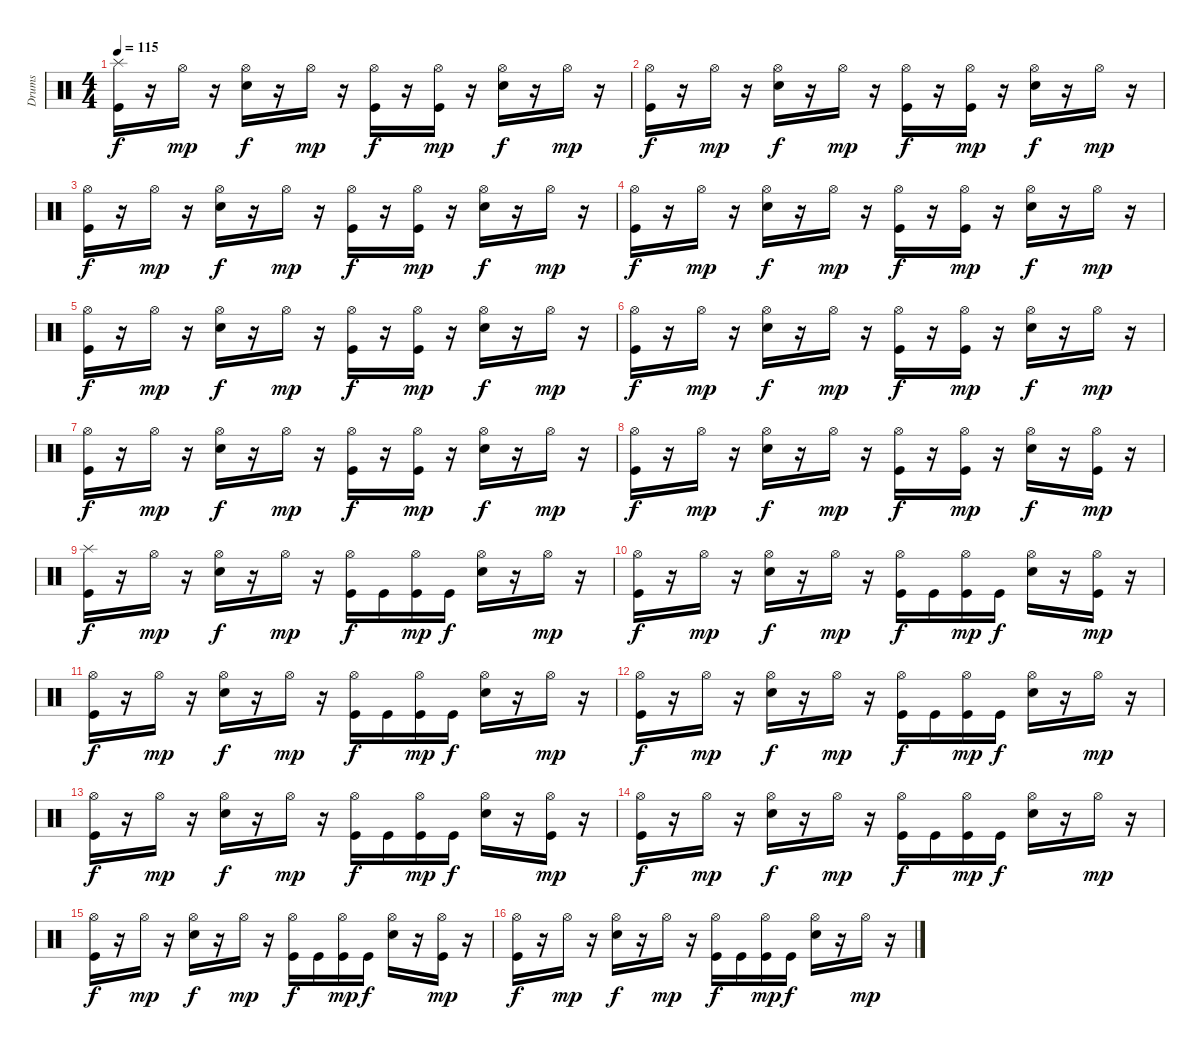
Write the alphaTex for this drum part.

\track ("Drums" "Drums") {instrument percussion}
\staff {score}
\articulation defaults
\ts (4 4)
\tempo 115
\clef neutral
\ks c
("Splash (hit)" "Kick (hit)").16{dy f} r.16 "Hi-Hat (open)".16{dy mp} r.16 ("Hi-Hat (open)" "Electric Snare (hit)").16{dy f} r.16 "Hi-Hat (open)".16{dy mp} r.16 ("Hi-Hat (open)" "Kick (hit)").16{dy f} r.16 ("Kick (hit)" "Hi-Hat (open)").16{dy mp} r.16 ("Hi-Hat (open)" "Electric Snare (hit)").16{dy f} r.16 "Hi-Hat (open)".16{dy mp} r.16 |
("Hi-Hat (open)" "Kick (hit)").16{dy f} r.16 "Hi-Hat (open)".16{dy mp} r.16 ("Hi-Hat (open)" "Electric Snare (hit)").16{dy f} r.16 "Hi-Hat (open)".16{dy mp} r.16 ("Hi-Hat (open)" "Kick (hit)").16{dy f} r.16 ("Kick (hit)" "Hi-Hat (open)").16{dy mp} r.16 ("Hi-Hat (open)" "Electric Snare (hit)").16{dy f} r.16 "Hi-Hat (open)".16{dy mp} r.16 |
("Hi-Hat (open)" "Kick (hit)").16{dy f} r.16 "Hi-Hat (open)".16{dy mp} r.16 ("Hi-Hat (open)" "Electric Snare (hit)").16{dy f} r.16 "Hi-Hat (open)".16{dy mp} r.16 ("Hi-Hat (open)" "Kick (hit)").16{dy f} r.16 ("Kick (hit)" "Hi-Hat (open)").16{dy mp} r.16 ("Hi-Hat (open)" "Electric Snare (hit)").16{dy f} r.16 "Hi-Hat (open)".16{dy mp} r.16 |
("Hi-Hat (open)" "Kick (hit)").16{dy f} r.16 "Hi-Hat (open)".16{dy mp} r.16 ("Hi-Hat (open)" "Electric Snare (hit)").16{dy f} r.16 "Hi-Hat (open)".16{dy mp} r.16 ("Hi-Hat (open)" "Kick (hit)").16{dy f} r.16 ("Kick (hit)" "Hi-Hat (open)").16{dy mp} r.16 ("Hi-Hat (open)" "Electric Snare (hit)").16{dy f} r.16 "Hi-Hat (open)".16{dy mp} r.16 |
("Hi-Hat (open)" "Kick (hit)").16{dy f} r.16 "Hi-Hat (open)".16{dy mp} r.16 ("Hi-Hat (open)" "Electric Snare (hit)").16{dy f} r.16 "Hi-Hat (open)".16{dy mp} r.16 ("Hi-Hat (open)" "Kick (hit)").16{dy f} r.16 ("Kick (hit)" "Hi-Hat (open)").16{dy mp} r.16 ("Hi-Hat (open)" "Electric Snare (hit)").16{dy f} r.16 "Hi-Hat (open)".16{dy mp} r.16 |
("Hi-Hat (open)" "Kick (hit)").16{dy f} r.16 "Hi-Hat (open)".16{dy mp} r.16 ("Hi-Hat (open)" "Electric Snare (hit)").16{dy f} r.16 "Hi-Hat (open)".16{dy mp} r.16 ("Hi-Hat (open)" "Kick (hit)").16{dy f} r.16 ("Kick (hit)" "Hi-Hat (open)").16{dy mp} r.16 ("Hi-Hat (open)" "Electric Snare (hit)").16{dy f} r.16 "Hi-Hat (open)".16{dy mp} r.16 |
("Hi-Hat (open)" "Kick (hit)").16{dy f} r.16 "Hi-Hat (open)".16{dy mp} r.16 ("Hi-Hat (open)" "Electric Snare (hit)").16{dy f} r.16 "Hi-Hat (open)".16{dy mp} r.16 ("Hi-Hat (open)" "Kick (hit)").16{dy f} r.16 ("Kick (hit)" "Hi-Hat (open)").16{dy mp} r.16 ("Hi-Hat (open)" "Electric Snare (hit)").16{dy f} r.16 "Hi-Hat (open)".16{dy mp} r.16 |
("Hi-Hat (open)" "Kick (hit)").16{dy f} r.16 "Hi-Hat (open)".16{dy mp} r.16 ("Hi-Hat (open)" "Electric Snare (hit)").16{dy f} r.16 "Hi-Hat (open)".16{dy mp} r.16 ("Hi-Hat (open)" "Kick (hit)").16{dy f} r.16 ("Kick (hit)" "Hi-Hat (open)").16{dy mp} r.16 ("Hi-Hat (open)" "Electric Snare (hit)").16{dy f} r.16 ("Kick (hit)" "Hi-Hat (open)").16{dy mp} r.16 |
("Splash (hit)" "Kick (hit)").16{dy f} r.16 "Hi-Hat (open)".16{dy mp} r.16 ("Hi-Hat (open)" "Electric Snare (hit)").16{dy f} r.16 "Hi-Hat (open)".16{dy mp} r.16 ("Hi-Hat (open)" "Kick (hit)").16{dy f} "Kick (hit)".16 ("Kick (hit)" "Hi-Hat (open)").16{dy mp} "Kick (hit)".16{dy f} ("Hi-Hat (open)" "Electric Snare (hit)").16 r.16 "Hi-Hat (open)".16{dy mp} r.16 |
("Hi-Hat (open)" "Kick (hit)").16{dy f} r.16 "Hi-Hat (open)".16{dy mp} r.16 ("Hi-Hat (open)" "Electric Snare (hit)").16{dy f} r.16 "Hi-Hat (open)".16{dy mp} r.16 ("Hi-Hat (open)" "Kick (hit)").16{dy f} "Kick (hit)".16 ("Kick (hit)" "Hi-Hat (open)").16{dy mp} "Kick (hit)".16{dy f} ("Hi-Hat (open)" "Electric Snare (hit)").16 r.16 ("Kick (hit)" "Hi-Hat (open)").16{dy mp} r.16 |
("Hi-Hat (open)" "Kick (hit)").16{dy f} r.16 "Hi-Hat (open)".16{dy mp} r.16 ("Hi-Hat (open)" "Electric Snare (hit)").16{dy f} r.16 "Hi-Hat (open)".16{dy mp} r.16 ("Hi-Hat (open)" "Kick (hit)").16{dy f} "Kick (hit)".16 ("Kick (hit)" "Hi-Hat (open)").16{dy mp} "Kick (hit)".16{dy f} ("Hi-Hat (open)" "Electric Snare (hit)").16 r.16 "Hi-Hat (open)".16{dy mp} r.16 |
("Hi-Hat (open)" "Kick (hit)").16{dy f} r.16 "Hi-Hat (open)".16{dy mp} r.16 ("Hi-Hat (open)" "Electric Snare (hit)").16{dy f} r.16 "Hi-Hat (open)".16{dy mp} r.16 ("Hi-Hat (open)" "Kick (hit)").16{dy f} "Kick (hit)".16 ("Kick (hit)" "Hi-Hat (open)").16{dy mp} "Kick (hit)".16{dy f} ("Hi-Hat (open)" "Electric Snare (hit)").16 r.16 "Hi-Hat (open)".16{dy mp} r.16 |
("Hi-Hat (open)" "Kick (hit)").16{dy f} r.16 "Hi-Hat (open)".16{dy mp} r.16 ("Hi-Hat (open)" "Electric Snare (hit)").16{dy f} r.16 "Hi-Hat (open)".16{dy mp} r.16 ("Hi-Hat (open)" "Kick (hit)").16{dy f} "Kick (hit)".16 ("Kick (hit)" "Hi-Hat (open)").16{dy mp} "Kick (hit)".16{dy f} ("Hi-Hat (open)" "Electric Snare (hit)").16 r.16 ("Kick (hit)" "Hi-Hat (open)").16{dy mp} r.16 |
("Hi-Hat (open)" "Kick (hit)").16{dy f} r.16 "Hi-Hat (open)".16{dy mp} r.16 ("Hi-Hat (open)" "Electric Snare (hit)").16{dy f} r.16 "Hi-Hat (open)".16{dy mp} r.16 ("Hi-Hat (open)" "Kick (hit)").16{dy f} "Kick (hit)".16 ("Kick (hit)" "Hi-Hat (open)").16{dy mp} "Kick (hit)".16{dy f} ("Hi-Hat (open)" "Electric Snare (hit)").16 r.16 "Hi-Hat (open)".16{dy mp} r.16 |
("Hi-Hat (open)" "Kick (hit)").16{dy f} r.16 "Hi-Hat (open)".16{dy mp} r.16 ("Hi-Hat (open)" "Electric Snare (hit)").16{dy f} r.16 "Hi-Hat (open)".16{dy mp} r.16 ("Hi-Hat (open)" "Kick (hit)").16{dy f} "Kick (hit)".16 ("Kick (hit)" "Hi-Hat (open)").16{dy mp} "Kick (hit)".16{dy f} ("Hi-Hat (open)" "Electric Snare (hit)").16 r.16 ("Kick (hit)" "Hi-Hat (open)").16{dy mp} r.16 |
("Hi-Hat (open)" "Kick (hit)").16{dy f} r.16 "Hi-Hat (open)".16{dy mp} r.16 ("Hi-Hat (open)" "Electric Snare (hit)").16{dy f} r.16 "Hi-Hat (open)".16{dy mp} r.16 ("Hi-Hat (open)" "Kick (hit)").16{dy f} "Kick (hit)".16 ("Kick (hit)" "Hi-Hat (open)").16{dy mp} "Kick (hit)".16{dy f} ("Hi-Hat (open)" "Electric Snare (hit)").16 r.16 "Hi-Hat (open)".16{dy mp} r.16
